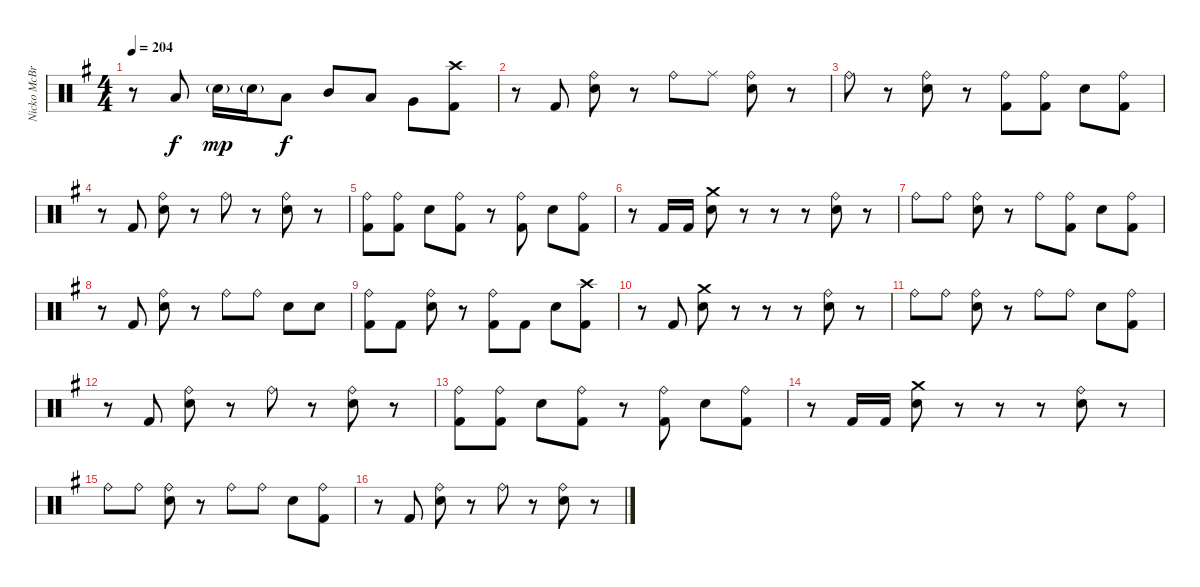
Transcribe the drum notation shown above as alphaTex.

\track ("Nicko McBrain (Drums)" "Nicko McBr") {instrument percussion}
\staff {score}
\articulation defaults
\ts (4 4)
\tempo 204
\clef neutral
\ks eminor
r.8{dy f} "Low Tom (hit)".8 "Snare (hit) 2"{g}.16{dy mp} "Snare (hit) 2"{g}.16 "Low Tom (hit)".8{dy f} "Mid Tom (hit)".8 "Low Tom (hit)".8 "Very Low Tom (hit)".8 ("Crash high (hit)" "Kick (hit) 2").8 |
r.8 "Kick (hit) 2".8 ("Ride (bell)" "Snare (hit) 2").8 r.8 "Ride (bell)".8 "Ride (middle)".8 ("Ride (bell)" "Snare (hit) 2").8 r.8 |
"Ride (bell)".8 r.8 ("Ride (bell)" "Snare (hit) 2").8 r.8 ("Ride (bell)" "Kick (hit) 2").8 ("Ride (bell)" "Kick (hit) 2").8 "Snare (hit) 2".8 ("Ride (bell)" "Kick (hit) 2").8 |
r.8 "Kick (hit) 2".8 ("Ride (bell)" "Snare (hit) 2").8 r.8 "Ride (bell)".8 r.8 ("Ride (bell)" "Snare (hit) 2").8 r.8 |
("Ride (bell)" "Kick (hit) 2").8 ("Ride (bell)" "Kick (hit) 2").8 "Snare (hit) 2".8 ("Ride (bell)" "Kick (hit) 2").8 r.8 ("Ride (bell)" "Kick (hit) 2").8 "Snare (hit) 2".8 ("Ride (bell)" "Kick (hit) 2").8 |
r.8 "Kick (hit) 2".16 "Kick (hit) 2".16 ("Crash medium (hit)" "Snare (hit) 2").8 r.8 r.8 r.8 ("Ride (bell)" "Snare (hit) 2").8 r.8 |
"Ride (bell)".8 "Ride (bell)".8 ("Ride (bell)" "Snare (hit) 2").8 r.8 "Ride (bell)".8 ("Ride (bell)" "Kick (hit) 2").8 "Snare (hit) 2".8 ("Ride (bell)" "Kick (hit) 2").8 |
r.8 "Kick (hit) 2".8 ("Ride (bell)" "Snare (hit) 2").8 r.8 "Ride (bell)".8 "Ride (bell)".8 "Snare (hit) 2".8 "Snare (hit) 2".8 |
("Ride (bell)" "Kick (hit) 2").8 "Kick (hit) 2".8 ("Ride (bell)" "Snare (hit) 2").8 r.8 ("Ride (bell)" "Kick (hit) 2").8 "Kick (hit) 2".8 "Snare (hit) 2".8 ("Crash high (hit)" "Kick (hit) 2").8 |
r.8 "Kick (hit) 2".8 ("Crash medium (hit)" "Snare (hit) 2").8 r.8 r.8 r.8 ("Ride (bell)" "Snare (hit) 2").8 r.8 |
"Ride (bell)".8 "Ride (bell)".8 ("Ride (bell)" "Snare (hit) 2").8 r.8 "Ride (bell)".8 "Ride (bell)".8 "Snare (hit) 2".8 ("Ride (bell)" "Kick (hit) 2").8 |
r.8 "Kick (hit) 2".8 ("Ride (bell)" "Snare (hit) 2").8 r.8 "Ride (bell)".8 r.8 ("Ride (bell)" "Snare (hit) 2").8 r.8 |
("Ride (bell)" "Kick (hit) 2").8 ("Ride (bell)" "Kick (hit) 2").8 "Snare (hit) 2".8 ("Ride (bell)" "Kick (hit) 2").8 r.8 ("Ride (bell)" "Kick (hit) 2").8 "Snare (hit) 2".8 ("Ride (bell)" "Kick (hit) 2").8 |
r.8 "Kick (hit) 2".16 "Kick (hit) 2".16 ("Crash medium (hit)" "Snare (hit) 2").8 r.8 r.8 r.8 ("Ride (bell)" "Snare (hit) 2").8 r.8 |
"Ride (bell)".8 "Ride (bell)".8 ("Ride (bell)" "Snare (hit) 2").8 r.8 "Ride (bell)".8 "Ride (bell)".8 "Snare (hit) 2".8 ("Ride (bell)" "Kick (hit) 2").8 |
r.8 "Kick (hit) 2".8 ("Ride (bell)" "Snare (hit) 2").8 r.8 "Ride (bell)".8 r.8 ("Ride (bell)" "Snare (hit) 2").8 r.8
